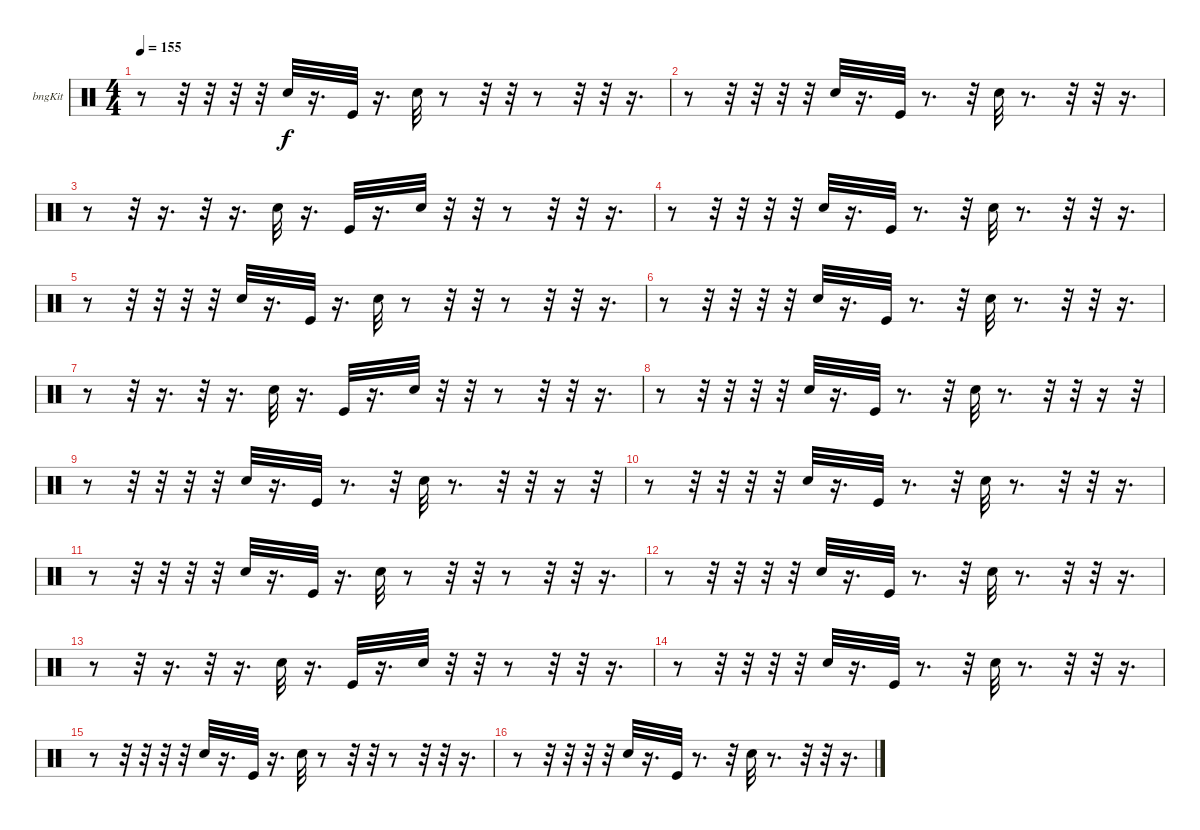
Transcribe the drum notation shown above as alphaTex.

\bracketExtendMode groupsimilarinstruments
\firstSystemTrackNameOrientation horizontal
\otherSystemsTrackNameOrientation horizontal
\track ("Е. Кулаков" "bngKit") {instrument percussion}
\staff {score}
\articulation defaults
\ts (4 4)
\tempo 155
\clef neutral
\ks c
r.8{dy f} r.32 r.32 r.32 r.32 "Snare (hit) 2".32 r.16{d} "Kick (hit)".32 r.16{d} "Snare (hit) 2".32 r.8 r.32 r.32 r.8 r.32 r.32 r.16{d} |
r.8 r.32 r.32 r.32 r.32 "Snare (hit) 2".32 r.16{d} "Kick (hit)".32 r.8{d} r.32 "Snare (hit) 2".32 r.8{d} r.32 r.32 r.16{d} |
r.8 r.32 r.16{d} r.32 r.16{d} "Snare (hit) 2".32 r.16{d} "Kick (hit)".32 r.16{d} "Snare (hit) 2".32 r.32 r.32 r.8 r.32 r.32 r.16{d} |
r.8 r.32 r.32 r.32 r.32 "Snare (hit) 2".32 r.16{d} "Kick (hit)".32 r.8{d} r.32 "Snare (hit) 2".32 r.8{d} r.32 r.32 r.16{d} |
r.8 r.32 r.32 r.32 r.32 "Snare (hit) 2".32 r.16{d} "Kick (hit)".32 r.16{d} "Snare (hit) 2".32 r.8 r.32 r.32 r.8 r.32 r.32 r.16{d} |
r.8 r.32 r.32 r.32 r.32 "Snare (hit) 2".32 r.16{d} "Kick (hit)".32 r.8{d} r.32 "Snare (hit) 2".32 r.8{d} r.32 r.32 r.16{d} |
r.8 r.32 r.16{d} r.32 r.16{d} "Snare (hit) 2".32 r.16{d} "Kick (hit)".32 r.16{d} "Snare (hit) 2".32 r.32 r.32 r.8 r.32 r.32 r.16{d} |
r.8 r.32 r.32 r.32 r.32 "Snare (hit) 2".32 r.16{d} "Kick (hit)".32 r.8{d} r.32 "Snare (hit) 2".32 r.8{d} r.32 r.32 r.16 r.32 |
r.8 r.32 r.32 r.32 r.32 "Snare (hit) 2".32 r.16{d} "Kick (hit)".32 r.8{d} r.32 "Snare (hit) 2".32 r.8{d} r.32 r.32 r.16 r.32 |
r.8 r.32 r.32 r.32 r.32 "Snare (hit) 2".32 r.16{d} "Kick (hit)".32 r.8{d} r.32 "Snare (hit) 2".32 r.8{d} r.32 r.32 r.16{d} |
r.8 r.32 r.32 r.32 r.32 "Snare (hit) 2".32 r.16{d} "Kick (hit)".32 r.16{d} "Snare (hit) 2".32 r.8 r.32 r.32 r.8 r.32 r.32 r.16{d} |
r.8 r.32 r.32 r.32 r.32 "Snare (hit) 2".32 r.16{d} "Kick (hit)".32 r.8{d} r.32 "Snare (hit) 2".32 r.8{d} r.32 r.32 r.16{d} |
r.8 r.32 r.16{d} r.32 r.16{d} "Snare (hit) 2".32 r.16{d} "Kick (hit)".32 r.16{d} "Snare (hit) 2".32 r.32 r.32 r.8 r.32 r.32 r.16{d} |
r.8 r.32 r.32 r.32 r.32 "Snare (hit) 2".32 r.16{d} "Kick (hit)".32 r.8{d} r.32 "Snare (hit) 2".32 r.8{d} r.32 r.32 r.16{d} |
r.8 r.32 r.32 r.32 r.32 "Snare (hit) 2".32 r.16{d} "Kick (hit)".32 r.16{d} "Snare (hit) 2".32 r.8 r.32 r.32 r.8 r.32 r.32 r.16{d} |
r.8 r.32 r.32 r.32 r.32 "Snare (hit) 2".32 r.16{d} "Kick (hit)".32 r.8{d} r.32 "Snare (hit) 2".32 r.8{d} r.32 r.32 r.16{d}
